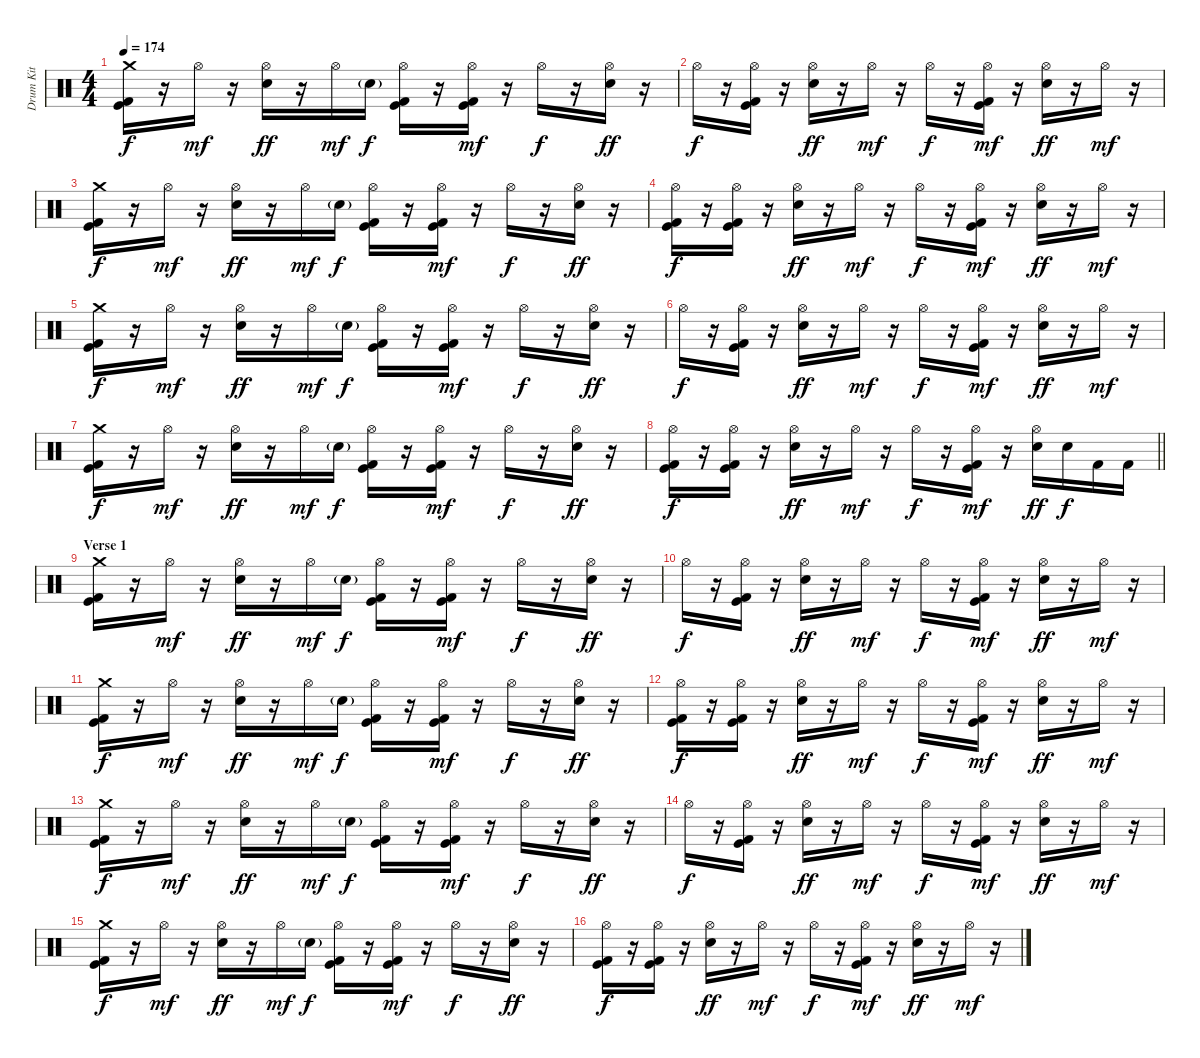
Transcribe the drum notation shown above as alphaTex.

\track ("Drum Kit" "Drum Kit") {instrument percussion}
\staff {score}
\articulation defaults
\ts (4 4)
\tempo 174
\clef neutral
\ks c
("Crash medium (hit)" "Kick (hit)" "Kick (hit) 2").16{dy f} r.16 "Hi-Hat (open)".16{dy mf} r.16 ("Hi-Hat (open)" "Electric Snare (hit)").16{dy ff} r.16 "Hi-Hat (open)".16{dy mf} "Electric Snare (hit)"{g}.16{dy f} ("Hi-Hat (open)" "Kick (hit)" "Kick (hit) 2").16 r.16 ("Hi-Hat (open)" "Kick (hit)" "Kick (hit) 2").16{dy mf} r.16 "Hi-Hat (open)".16{dy f} r.16 ("Hi-Hat (open)" "Electric Snare (hit)").16{dy ff} r.16 |
"Hi-Hat (open)".16{dy f} r.16 ("Hi-Hat (open)" "Kick (hit)" "Kick (hit) 2").16 r.16 ("Hi-Hat (open)" "Electric Snare (hit)").16{dy ff} r.16 "Hi-Hat (open)".16{dy mf} r.16 "Hi-Hat (open)".16{dy f} r.16 ("Hi-Hat (open)" "Kick (hit)" "Kick (hit) 2").16{dy mf} r.16 ("Hi-Hat (open)" "Electric Snare (hit)").16{dy ff} r.16 "Hi-Hat (open)".16{dy mf} r.16 |
("Crash medium (hit)" "Kick (hit)" "Kick (hit) 2").16{dy f} r.16 "Hi-Hat (open)".16{dy mf} r.16 ("Hi-Hat (open)" "Electric Snare (hit)").16{dy ff} r.16 "Hi-Hat (open)".16{dy mf} "Electric Snare (hit)"{g}.16{dy f} ("Hi-Hat (open)" "Kick (hit)" "Kick (hit) 2").16 r.16 ("Hi-Hat (open)" "Kick (hit)" "Kick (hit) 2").16{dy mf} r.16 "Hi-Hat (open)".16{dy f} r.16 ("Hi-Hat (open)" "Electric Snare (hit)").16{dy ff} r.16 |
("Hi-Hat (open)" "Kick (hit)" "Kick (hit) 2").16{dy f} r.16 ("Hi-Hat (open)" "Kick (hit)" "Kick (hit) 2").16 r.16 ("Hi-Hat (open)" "Electric Snare (hit)").16{dy ff} r.16 "Hi-Hat (open)".16{dy mf} r.16 "Hi-Hat (open)".16{dy f} r.16 ("Hi-Hat (open)" "Kick (hit)" "Kick (hit) 2").16{dy mf} r.16 ("Hi-Hat (open)" "Electric Snare (hit)").16{dy ff} r.16 "Hi-Hat (open)".16{dy mf} r.16 |
("Crash medium (hit)" "Kick (hit)" "Kick (hit) 2").16{dy f} r.16 "Hi-Hat (open)".16{dy mf} r.16 ("Hi-Hat (open)" "Electric Snare (hit)").16{dy ff} r.16 "Hi-Hat (open)".16{dy mf} "Electric Snare (hit)"{g}.16{dy f} ("Hi-Hat (open)" "Kick (hit)" "Kick (hit) 2").16 r.16 ("Hi-Hat (open)" "Kick (hit)" "Kick (hit) 2").16{dy mf} r.16 "Hi-Hat (open)".16{dy f} r.16 ("Hi-Hat (open)" "Electric Snare (hit)").16{dy ff} r.16 |
"Hi-Hat (open)".16{dy f} r.16 ("Hi-Hat (open)" "Kick (hit)" "Kick (hit) 2").16 r.16 ("Hi-Hat (open)" "Electric Snare (hit)").16{dy ff} r.16 "Hi-Hat (open)".16{dy mf} r.16 "Hi-Hat (open)".16{dy f} r.16 ("Hi-Hat (open)" "Kick (hit)" "Kick (hit) 2").16{dy mf} r.16 ("Hi-Hat (open)" "Electric Snare (hit)").16{dy ff} r.16 "Hi-Hat (open)".16{dy mf} r.16 |
("Crash medium (hit)" "Kick (hit)" "Kick (hit) 2").16{dy f} r.16 "Hi-Hat (open)".16{dy mf} r.16 ("Hi-Hat (open)" "Electric Snare (hit)").16{dy ff} r.16 "Hi-Hat (open)".16{dy mf} "Electric Snare (hit)"{g}.16{dy f} ("Hi-Hat (open)" "Kick (hit)" "Kick (hit) 2").16 r.16 ("Hi-Hat (open)" "Kick (hit)" "Kick (hit) 2").16{dy mf} r.16 "Hi-Hat (open)".16{dy f} r.16 ("Hi-Hat (open)" "Electric Snare (hit)").16{dy ff} r.16 |
\barLineRight lightlight
("Hi-Hat (open)" "Kick (hit)" "Kick (hit) 2").16{dy f} r.16 ("Hi-Hat (open)" "Kick (hit)" "Kick (hit) 2").16 r.16 ("Hi-Hat (open)" "Electric Snare (hit)").16{dy ff} r.16 "Hi-Hat (open)".16{dy mf} r.16 "Hi-Hat (open)".16{dy f} r.16 ("Hi-Hat (open)" "Kick (hit)" "Kick (hit) 2").16{dy mf} r.16 ("Hi-Hat (open)" "Electric Snare (hit)").16{dy ff} "Electric Snare (hit)".16{dy f} "Kick (hit) 2".16 "Kick (hit) 2".16 |
\section ("" "Verse 1")
("Crash medium (hit)" "Kick (hit)" "Kick (hit) 2").16 r.16 "Hi-Hat (open)".16{dy mf} r.16 ("Hi-Hat (open)" "Electric Snare (hit)").16{dy ff} r.16 "Hi-Hat (open)".16{dy mf} "Electric Snare (hit)"{g}.16{dy f} ("Hi-Hat (open)" "Kick (hit)" "Kick (hit) 2").16 r.16 ("Hi-Hat (open)" "Kick (hit)" "Kick (hit) 2").16{dy mf} r.16 "Hi-Hat (open)".16{dy f} r.16 ("Hi-Hat (open)" "Electric Snare (hit)").16{dy ff} r.16 |
"Hi-Hat (open)".16{dy f} r.16 ("Hi-Hat (open)" "Kick (hit)" "Kick (hit) 2").16 r.16 ("Hi-Hat (open)" "Electric Snare (hit)").16{dy ff} r.16 "Hi-Hat (open)".16{dy mf} r.16 "Hi-Hat (open)".16{dy f} r.16 ("Hi-Hat (open)" "Kick (hit)" "Kick (hit) 2").16{dy mf} r.16 ("Hi-Hat (open)" "Electric Snare (hit)").16{dy ff} r.16 "Hi-Hat (open)".16{dy mf} r.16 |
("Crash medium (hit)" "Kick (hit)" "Kick (hit) 2").16{dy f} r.16 "Hi-Hat (open)".16{dy mf} r.16 ("Hi-Hat (open)" "Electric Snare (hit)").16{dy ff} r.16 "Hi-Hat (open)".16{dy mf} "Electric Snare (hit)"{g}.16{dy f} ("Hi-Hat (open)" "Kick (hit)" "Kick (hit) 2").16 r.16 ("Hi-Hat (open)" "Kick (hit)" "Kick (hit) 2").16{dy mf} r.16 "Hi-Hat (open)".16{dy f} r.16 ("Hi-Hat (open)" "Electric Snare (hit)").16{dy ff} r.16 |
("Hi-Hat (open)" "Kick (hit)" "Kick (hit) 2").16{dy f} r.16 ("Hi-Hat (open)" "Kick (hit)" "Kick (hit) 2").16 r.16 ("Hi-Hat (open)" "Electric Snare (hit)").16{dy ff} r.16 "Hi-Hat (open)".16{dy mf} r.16 "Hi-Hat (open)".16{dy f} r.16 ("Hi-Hat (open)" "Kick (hit)" "Kick (hit) 2").16{dy mf} r.16 ("Hi-Hat (open)" "Electric Snare (hit)").16{dy ff} r.16 "Hi-Hat (open)".16{dy mf} r.16 |
("Crash medium (hit)" "Kick (hit)" "Kick (hit) 2").16{dy f} r.16 "Hi-Hat (open)".16{dy mf} r.16 ("Hi-Hat (open)" "Electric Snare (hit)").16{dy ff} r.16 "Hi-Hat (open)".16{dy mf} "Electric Snare (hit)"{g}.16{dy f} ("Hi-Hat (open)" "Kick (hit)" "Kick (hit) 2").16 r.16 ("Hi-Hat (open)" "Kick (hit)" "Kick (hit) 2").16{dy mf} r.16 "Hi-Hat (open)".16{dy f} r.16 ("Hi-Hat (open)" "Electric Snare (hit)").16{dy ff} r.16 |
"Hi-Hat (open)".16{dy f} r.16 ("Hi-Hat (open)" "Kick (hit)" "Kick (hit) 2").16 r.16 ("Hi-Hat (open)" "Electric Snare (hit)").16{dy ff} r.16 "Hi-Hat (open)".16{dy mf} r.16 "Hi-Hat (open)".16{dy f} r.16 ("Hi-Hat (open)" "Kick (hit)" "Kick (hit) 2").16{dy mf} r.16 ("Hi-Hat (open)" "Electric Snare (hit)").16{dy ff} r.16 "Hi-Hat (open)".16{dy mf} r.16 |
("Crash medium (hit)" "Kick (hit)" "Kick (hit) 2").16{dy f} r.16 "Hi-Hat (open)".16{dy mf} r.16 ("Hi-Hat (open)" "Electric Snare (hit)").16{dy ff} r.16 "Hi-Hat (open)".16{dy mf} "Electric Snare (hit)"{g}.16{dy f} ("Hi-Hat (open)" "Kick (hit)" "Kick (hit) 2").16 r.16 ("Hi-Hat (open)" "Kick (hit)" "Kick (hit) 2").16{dy mf} r.16 "Hi-Hat (open)".16{dy f} r.16 ("Hi-Hat (open)" "Electric Snare (hit)").16{dy ff} r.16 |
("Hi-Hat (open)" "Kick (hit)" "Kick (hit) 2").16{dy f} r.16 ("Hi-Hat (open)" "Kick (hit)" "Kick (hit) 2").16 r.16 ("Hi-Hat (open)" "Electric Snare (hit)").16{dy ff} r.16 "Hi-Hat (open)".16{dy mf} r.16 "Hi-Hat (open)".16{dy f} r.16 ("Hi-Hat (open)" "Kick (hit)" "Kick (hit) 2").16{dy mf} r.16 ("Hi-Hat (open)" "Electric Snare (hit)").16{dy ff} r.16 "Hi-Hat (open)".16{dy mf} r.16
